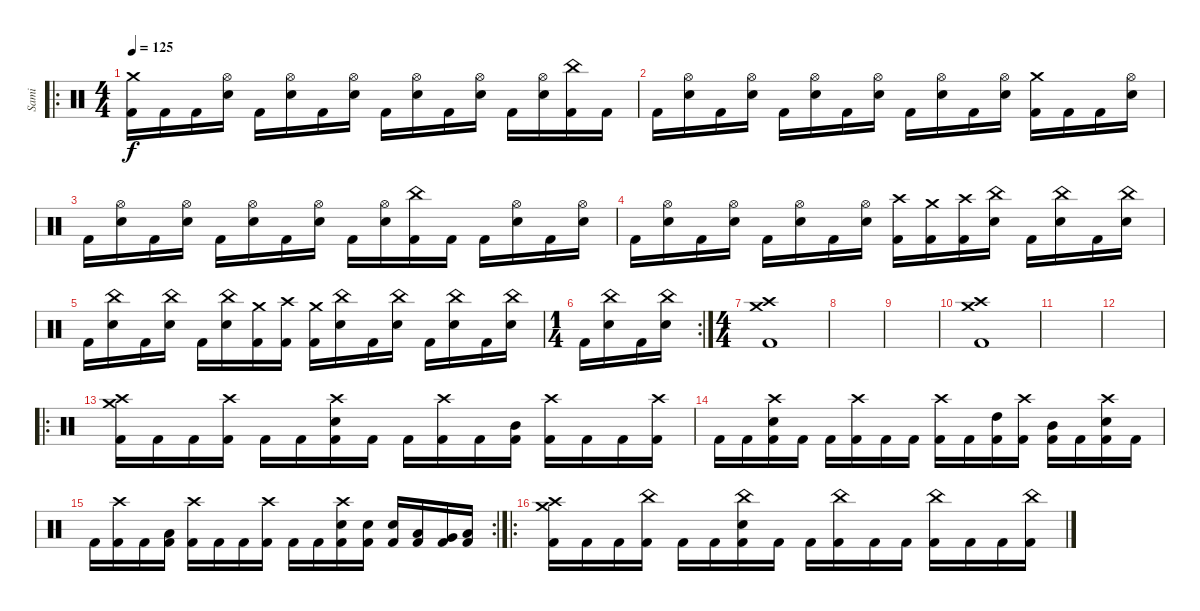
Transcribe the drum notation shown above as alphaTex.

\track ("Sami" "Sami") {instrument percussion}
\staff {score}
\articulation defaults
\ro
\ts (4 4)
\tempo 125
\clef neutral
\ks c
("Crash medium (hit)" "Kick (hit) 2").16{dy f} "Kick (hit) 2".16 "Kick (hit) 2".16 ("Hi-Hat (open)" "Snare (hit) 2").16 "Kick (hit) 2".16 ("Hi-Hat (open)" "Snare (hit) 2").16 "Kick (hit) 2".16 ("Hi-Hat (open)" "Snare (hit) 2").16 "Kick (hit) 2".16 ("Hi-Hat (open)" "Snare (hit) 2").16 "Kick (hit) 2".16 ("Hi-Hat (open)" "Snare (hit) 2").16 "Kick (hit) 2".16 ("Hi-Hat (open)" "Snare (hit) 2").16 ("China (hit)" "Kick (hit) 2").16 "Kick (hit) 2".16 |
"Kick (hit) 2".16 ("Hi-Hat (open)" "Snare (hit) 2").16 "Kick (hit) 2".16 ("Hi-Hat (open)" "Snare (hit) 2").16 "Kick (hit) 2".16 ("Hi-Hat (open)" "Snare (hit) 2").16 "Kick (hit) 2".16 ("Hi-Hat (open)" "Snare (hit) 2").16 "Kick (hit) 2".16 ("Hi-Hat (open)" "Snare (hit) 2").16 "Kick (hit) 2".16 ("Hi-Hat (open)" "Snare (hit) 2").16 ("Crash medium (hit)" "Kick (hit) 2").16 "Kick (hit) 2".16 "Kick (hit) 2".16 ("Hi-Hat (open)" "Snare (hit) 2").16 |
"Kick (hit) 2".16 ("Hi-Hat (open)" "Snare (hit) 2").16 "Kick (hit) 2".16 ("Hi-Hat (open)" "Snare (hit) 2").16 "Kick (hit) 2".16 ("Hi-Hat (open)" "Snare (hit) 2").16 "Kick (hit) 2".16 ("Hi-Hat (open)" "Snare (hit) 2").16 "Kick (hit) 2".16 ("Hi-Hat (open)" "Snare (hit) 2").16 ("China (hit)" "Kick (hit) 2").16 "Kick (hit) 2".16 "Kick (hit) 2".16 ("Hi-Hat (open)" "Snare (hit) 2").16 "Kick (hit) 2".16 ("Hi-Hat (open)" "Snare (hit) 2").16 |
"Kick (hit) 2".16 ("Hi-Hat (open)" "Snare (hit) 2").16 "Kick (hit) 2".16 ("Hi-Hat (open)" "Snare (hit) 2").16 "Kick (hit) 2".16 ("Hi-Hat (open)" "Snare (hit) 2").16 "Kick (hit) 2".16 ("Hi-Hat (open)" "Snare (hit) 2").16 ("Crash high (hit)" "Kick (hit) 2").16 ("Crash medium (hit)" "Kick (hit) 2").16 ("Crash high (hit)" "Kick (hit) 2").16 ("China (hit)" "Snare (hit) 2").16 "Kick (hit) 2".16 ("China (hit)" "Snare (hit) 2").16 "Kick (hit) 2".16 ("China (hit)" "Snare (hit) 2").16 |
"Kick (hit) 2".16 ("China (hit)" "Snare (hit) 2").16 "Kick (hit) 2".16 ("China (hit)" "Snare (hit) 2").16 "Kick (hit) 2".16 ("China (hit)" "Snare (hit) 2").16 ("Crash medium (hit)" "Kick (hit) 2").16 ("Crash high (hit)" "Kick (hit) 2").16 ("Crash medium (hit)" "Kick (hit) 2").16 ("China (hit)" "Snare (hit) 2").16 "Kick (hit) 2".16 ("China (hit)" "Snare (hit) 2").16 "Kick (hit) 2".16 ("China (hit)" "Snare (hit) 2").16 "Kick (hit) 2".16 ("China (hit)" "Snare (hit) 2").16 |
\rc 2
\ts (1 4)
"Kick (hit) 2".16 ("China (hit)" "Snare (hit) 2").16 "Kick (hit) 2".16 ("China (hit)" "Snare (hit) 2").16 |
\ts (4 4)
("Crash high (hit)" "Crash medium (hit)" "Kick (hit) 2").1 |
|
|
("Crash high (hit)" "Crash medium (hit)" "Kick (hit) 2").1 |
|
|
\ro
("Crash high (hit)" "Crash medium (hit)" "Kick (hit) 2").16 "Kick (hit) 2".16 "Kick (hit) 2".16 ("Crash high (hit)" "Kick (hit) 2").16 "Kick (hit) 2".16 "Kick (hit) 2".16 ("Crash high (hit)" "Snare (hit) 2" "Kick (hit) 2").16 "Kick (hit) 2".16 "Kick (hit) 2".16 ("Crash high (hit)" "Kick (hit) 2").16 "Kick (hit) 2".16 ("Mid Tom (hit)" "Kick (hit) 2").16 ("Crash high (hit)" "Kick (hit) 2").16 "Kick (hit) 2".16 "Kick (hit) 2".16 ("Crash high (hit)" "Kick (hit) 2").16 |
"Kick (hit) 2".16 "Kick (hit) 2".16 ("Crash high (hit)" "Snare (hit) 2" "Kick (hit) 2").16 "Kick (hit) 2".16 "Kick (hit) 2".16 ("Crash high (hit)" "Kick (hit) 2").16 "Kick (hit) 2".16 "Kick (hit) 2".16 ("Crash high (hit)" "Kick (hit) 2").16 "Kick (hit) 2".16 ("High Tom (hit)" "Kick (hit) 2").16 ("Crash high (hit)" "Kick (hit) 2").16 ("Mid Tom (hit)" "Kick (hit) 2").16 "Kick (hit) 2".16 ("Crash high (hit)" "Snare (hit) 2" "Kick (hit) 2").16 "Kick (hit) 2".16 |
\rc 2 "Kick (hit) 2".16
("Crash high (hit)" "Kick (hit) 2").16 "Kick (hit) 2".16 ("Low Tom (hit)" "Kick (hit) 2").16 ("Crash high (hit)" "Kick (hit) 2").16 "Kick (hit) 2".16 "Kick (hit) 2".16 ("Crash high (hit)" "Kick (hit) 2").16 "Kick (hit) 2".16 "Kick (hit) 2".16 ("Crash high (hit)" "Snare (hit) 2" "Kick (hit) 2").16 ("Snare (hit) 2" "Kick (hit) 2").16 ("Snare (hit) 2" "Kick (hit) 2").16 ("Low Tom (hit)" "Kick (hit) 2").16 ("Very Low Tom (hit)" "Kick (hit) 2").16 ("Low Floor Tom (hit)" "Kick (hit) 2").16 |
\ro
("Crash medium (hit)" "Crash high (hit)" "Kick (hit) 2").16 "Kick (hit) 2".16 "Kick (hit) 2".16 ("China (hit)" "Kick (hit) 2").16 "Kick (hit) 2".16 "Kick (hit) 2".16 ("China (hit)" "Snare (hit) 2" "Kick (hit) 2").16 "Kick (hit) 2".16 "Kick (hit) 2".16 ("China (hit)" "Kick (hit) 2").16 "Kick (hit) 2".16 "Kick (hit) 2".16 ("China (hit)" "Kick (hit) 2").16 "Kick (hit) 2".16 "Kick (hit) 2".16 ("China (hit)" "Kick (hit) 2").16
